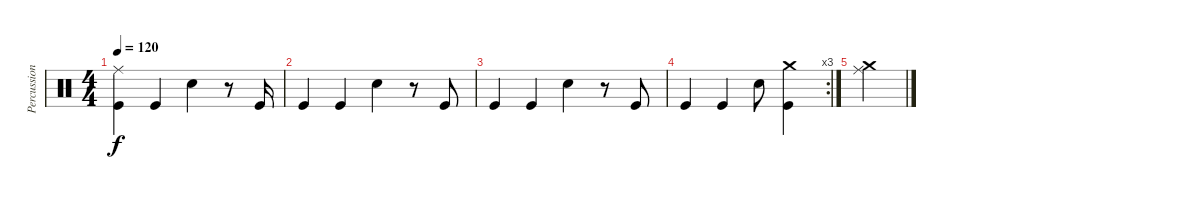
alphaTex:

\track ("Percussion" "Percussion") {instrument percussion}
\staff {score}
\articulation defaults
\ts (4 4)
\tempo 120
\clef neutral
\ks c
("Kick (hit)" "Ride (middle)").4{dy f} "Kick (hit)".4 "Electric Snare (hit)".4 r.8 "Kick (hit)".16 |
"Kick (hit)".4 "Kick (hit)".4 "Electric Snare (hit)".4 r.8 "Kick (hit)".8 |
"Kick (hit)".4 "Kick (hit)".4 "Electric Snare (hit)".4 r.8 "Kick (hit)".8 |
\rc 3 "Kick (hit)".4 "Kick (hit)".4 "Electric Snare (hit)".8
("Kick (hit)" "Crash medium (hit)").4 |
("Ride (middle)" "Crash medium (hit)").4
